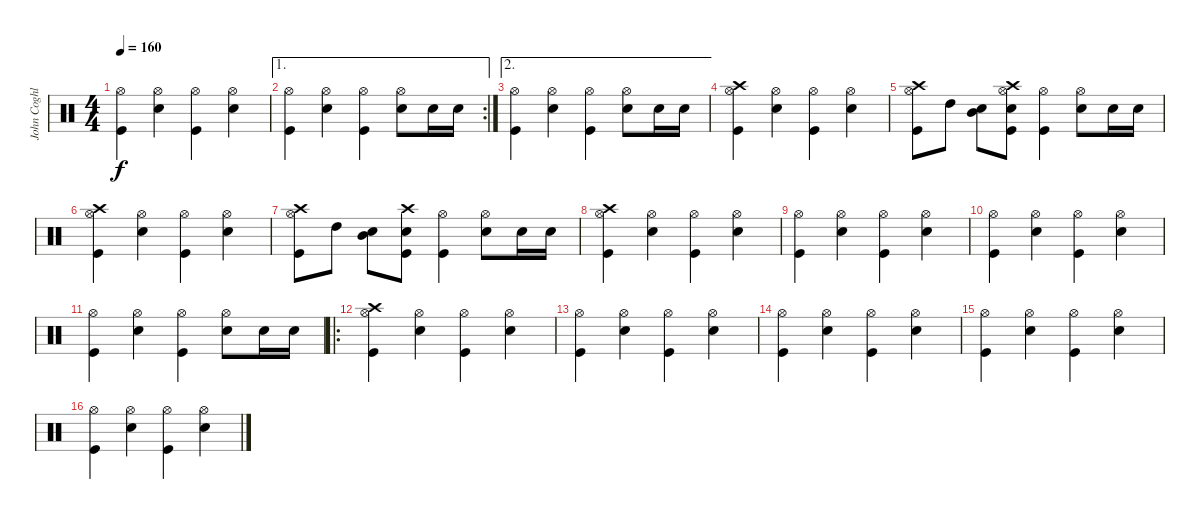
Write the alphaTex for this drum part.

\track ("John Coghlan" "John Coghl") {instrument percussion}
\staff {score}
\articulation defaults
\ts (4 4)
\tempo 160
\clef neutral
\ks c
("Hi-Hat (open)" "Kick (hit)").4{dy f} ("Electric Snare (hit)" "Hi-Hat (open)").4 ("Hi-Hat (open)" "Kick (hit)").4 ("Electric Snare (hit)" "Hi-Hat (open)").4 |
\ae 1
\rc 2
("Hi-Hat (open)" "Kick (hit)").4 ("Electric Snare (hit)" "Hi-Hat (open)").4 ("Hi-Hat (open)" "Kick (hit)").4 ("Electric Snare (hit)" "Hi-Hat (open)").8 "Electric Snare (hit)".16 "Electric Snare (hit)".16 |
\ae 2
("Hi-Hat (open)" "Kick (hit)").4 ("Electric Snare (hit)" "Hi-Hat (open)").4 ("Hi-Hat (open)" "Kick (hit)").4 ("Electric Snare (hit)" "Hi-Hat (open)").8 "Electric Snare (hit)".16 "Electric Snare (hit)".16 |
("Crash high (hit)" "Hi-Hat (open)" "Kick (hit)").4 ("Hi-Hat (open)" "Electric Snare (hit)").4 ("Hi-Hat (open)" "Kick (hit)").4 ("Hi-Hat (open)" "Electric Snare (hit)").4 |
("Crash high (hit)" "Hi-Hat (open)" "Kick (hit)").8 "High Tom (hit)".8 ("Mid Tom (hit)" "Electric Snare (hit)").8 ("Crash high (hit)" "Hi-Hat (open)" "Electric Snare (hit)" "Kick (hit)").8 ("Hi-Hat (open)" "Kick (hit)").4 ("Electric Snare (hit)" "Hi-Hat (open)").8 "Electric Snare (hit)".16 "Electric Snare (hit)".16 |
("Crash high (hit)" "Hi-Hat (open)" "Kick (hit)").4 ("Hi-Hat (open)" "Electric Snare (hit)").4 ("Hi-Hat (open)" "Kick (hit)").4 ("Hi-Hat (open)" "Electric Snare (hit)").4 |
("Crash high (hit)" "Hi-Hat (open)" "Kick (hit)").8 "High Tom (hit)".8 ("Mid Tom (hit)" "Electric Snare (hit)").8 ("Crash high (hit)" "Electric Snare (hit)" "Kick (hit)").8 ("Hi-Hat (open)" "Kick (hit)").4 ("Hi-Hat (open)" "Electric Snare (hit)").8 "Electric Snare (hit)".16 "Electric Snare (hit)".16 |
("Crash high (hit)" "Hi-Hat (open)" "Kick (hit)").4 ("Hi-Hat (open)" "Electric Snare (hit)").4 ("Hi-Hat (open)" "Kick (hit)").4 ("Hi-Hat (open)" "Electric Snare (hit)").4 |
("Hi-Hat (open)" "Kick (hit)").4 ("Hi-Hat (open)" "Electric Snare (hit)").4 ("Hi-Hat (open)" "Kick (hit)").4 ("Hi-Hat (open)" "Electric Snare (hit)").4 |
("Hi-Hat (open)" "Kick (hit)").4 ("Hi-Hat (open)" "Electric Snare (hit)").4 ("Hi-Hat (open)" "Kick (hit)").4 ("Hi-Hat (open)" "Electric Snare (hit)").4 |
("Hi-Hat (open)" "Kick (hit)").4 ("Hi-Hat (open)" "Electric Snare (hit)").4 ("Hi-Hat (open)" "Kick (hit)").4 ("Hi-Hat (open)" "Electric Snare (hit)").8 "Electric Snare (hit)".16 "Electric Snare (hit)".16 |
\ro
("Crash high (hit)" "Hi-Hat (open)" "Kick (hit)").4 ("Hi-Hat (open)" "Electric Snare (hit)").4 ("Hi-Hat (open)" "Kick (hit)").4 ("Hi-Hat (open)" "Electric Snare (hit)").4 |
("Hi-Hat (open)" "Kick (hit)").4 ("Hi-Hat (open)" "Electric Snare (hit)").4 ("Hi-Hat (open)" "Kick (hit)").4 ("Hi-Hat (open)" "Electric Snare (hit)").4 |
("Hi-Hat (open)" "Kick (hit)").4 ("Hi-Hat (open)" "Electric Snare (hit)").4 ("Hi-Hat (open)" "Kick (hit)").4 ("Hi-Hat (open)" "Electric Snare (hit)").4 |
("Hi-Hat (open)" "Kick (hit)").4 ("Electric Snare (hit)" "Hi-Hat (open)").4 ("Hi-Hat (open)" "Kick (hit)").4 ("Electric Snare (hit)" "Hi-Hat (open)").4 |
("Hi-Hat (open)" "Kick (hit)").4 ("Electric Snare (hit)" "Hi-Hat (open)").4 ("Hi-Hat (open)" "Kick (hit)").4 ("Electric Snare (hit)" "Hi-Hat (open)").4
